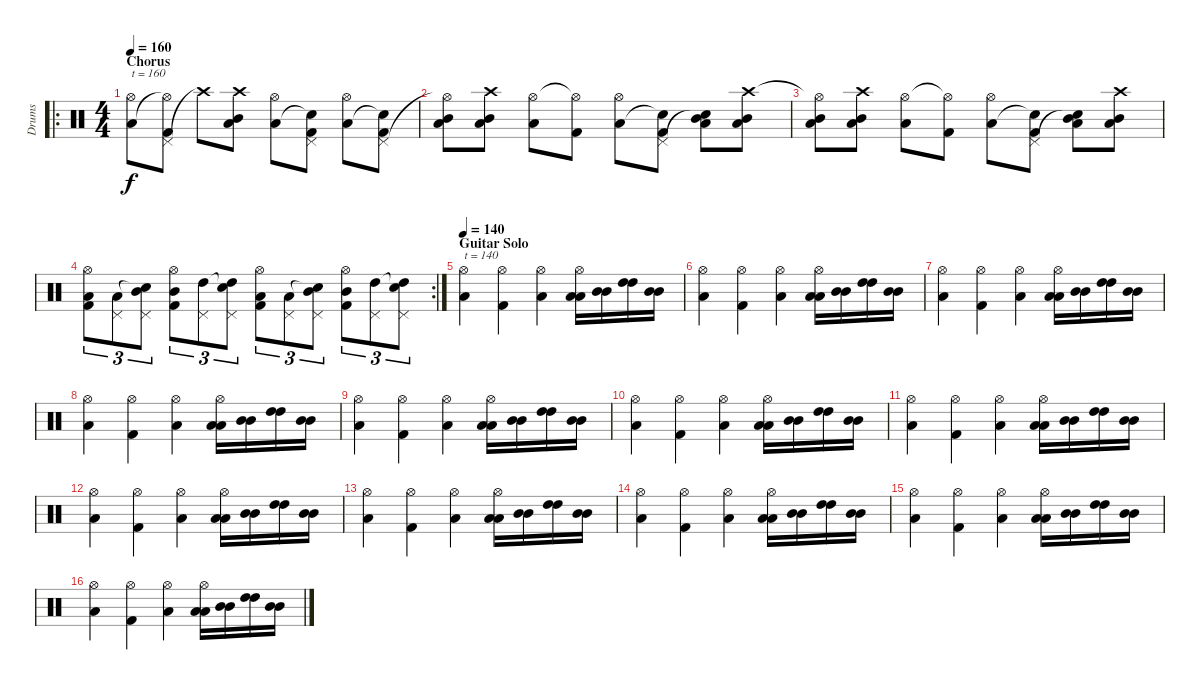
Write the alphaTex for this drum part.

\track ("Drums" "Drums") {instrument percussion}
\staff {score}
\articulation defaults
\ro
\ts (4 4)
\section ("" "Chorus")
\tempo 160
\clef neutral
\ks c
("Hi-Hat (open)" "Low Floor Tom (hit)").8{txt "t = 160" dy f} ("Pedal Hi-Hat (hit)" "Hi-Hat (open)"{t} "Kick (hit) 2").8 "Crash high (hit)"{t}.8 ("Crash high (hit)" "Mid Tom (hit)" "Low Tom (hit)").8 ("Hi-Hat (open)" "Low Floor Tom (hit)").8 ("Pedal Hi-Hat (hit)" "Snare (hit)"{t} "Kick (hit) 2").8 ("Hi-Hat (open)" "Low Floor Tom (hit)").8 ("Pedal Hi-Hat (hit)" "Snare (hit)"{t} "Kick (hit) 2").8 |
("Hi-Hat (open)"{t} "Mid Tom (hit)" "Low Tom (hit)").8 ("Crash high (hit)" "Mid Tom (hit)" "Low Tom (hit)").8 ("Hi-Hat (open)" "Low Floor Tom (hit)").8 ("Hi-Hat (open)"{t} "Kick (hit) 2").8 ("Hi-Hat (open)" "Low Floor Tom (hit)").8 ("Pedal Hi-Hat (hit)" "Snare (hit)"{t} "Kick (hit) 2").8 ("Snare (hit)"{t} "Mid Tom (hit)" "Low Tom (hit)").8 ("Crash high (hit)" "Mid Tom (hit)" "Low Tom (hit)").8 |
("Hi-Hat (open)"{t} "Mid Tom (hit)" "Low Tom (hit)").8 ("Crash high (hit)" "Mid Tom (hit)" "Low Tom (hit)").8 ("Hi-Hat (open)" "Low Floor Tom (hit)").8 ("Hi-Hat (open)"{t} "Kick (hit) 2").8 ("Hi-Hat (open)" "Low Floor Tom (hit)").8 ("Pedal Hi-Hat (hit)" "Snare (hit)"{t} "Kick (hit) 2").8 ("Snare (hit)"{t} "Mid Tom (hit)" "Low Tom (hit)").8 ("Crash high (hit)" "Mid Tom (hit)" "Low Tom (hit)").8 |
\rc 2
("Hi-Hat (open)" "Low Tom (hit)" "Kick (hit) 2").8{tu (3 2)} ("Pedal Hi-Hat (hit)" "Low Tom (hit)").8{tu (3 2)} ("Pedal Hi-Hat (hit)" "Snare (hit)"{t} "Mid Tom (hit)").8{tu (3 2)} ("Hi-Hat (open)" "Mid Tom (hit)" "Kick (hit) 2").8{tu (3 2)} ("Pedal Hi-Hat (hit)" "High Tom (hit)").8{tu (3 2)} ("Pedal Hi-Hat (hit)" "Snare (hit)"{t} "High Tom (hit)").8{tu (3 2)} ("Hi-Hat (open)" "Low Tom (hit)" "Kick (hit) 2").8{tu (3 2)} ("Pedal Hi-Hat (hit)" "Low Tom (hit)").8{tu (3 2)} ("Pedal Hi-Hat (hit)" "Snare (hit)"{t} "Mid Tom (hit)").8{tu (3 2)} ("Hi-Hat (open)" "Mid Tom (hit)" "Kick (hit) 2").8{tu (3 2)} ("Pedal Hi-Hat (hit)" "High Tom (hit)").8{tu (3 2)} ("Pedal Hi-Hat (hit)" "Snare (hit)"{t} "High Tom (hit)").8{tu (3 2)} |
\section ("" "Guitar Solo")
\tempo 140
("Hi-Hat (open)" "Low Floor Tom (hit)").4{txt "t = 140"} ("Hi-Hat (open)" "Kick (hit) 2").4 ("Hi-Hat (open)" "Low Floor Tom (hit)").4 ("Hi-Hat (open)" "Low Tom (hit)" "Low Tom (hit)").16 ("Mid Tom (hit)" "Mid Tom (hit)").16 ("High Tom (hit)" "High Tom (hit)").16 ("Mid Tom (hit)" "Mid Tom (hit)").16 |
("Hi-Hat (open)" "Low Floor Tom (hit)").4 ("Hi-Hat (open)" "Kick (hit) 2").4 ("Hi-Hat (open)" "Low Floor Tom (hit)").4 ("Hi-Hat (open)" "Low Tom (hit)" "Low Tom (hit)").16 ("Mid Tom (hit)" "Mid Tom (hit)").16 ("High Tom (hit)" "High Tom (hit)").16 ("Mid Tom (hit)" "Mid Tom (hit)").16 |
("Hi-Hat (open)" "Low Floor Tom (hit)").4 ("Hi-Hat (open)" "Kick (hit) 2").4 ("Hi-Hat (open)" "Low Floor Tom (hit)").4 ("Hi-Hat (open)" "Low Tom (hit)" "Low Tom (hit)").16 ("Mid Tom (hit)" "Mid Tom (hit)").16 ("High Tom (hit)" "High Tom (hit)").16 ("Mid Tom (hit)" "Mid Tom (hit)").16 |
("Hi-Hat (open)" "Low Floor Tom (hit)").4 ("Hi-Hat (open)" "Kick (hit) 2").4 ("Hi-Hat (open)" "Low Floor Tom (hit)").4 ("Hi-Hat (open)" "Low Tom (hit)" "Low Tom (hit)").16 ("Mid Tom (hit)" "Mid Tom (hit)").16 ("High Tom (hit)" "High Tom (hit)").16 ("Mid Tom (hit)" "Mid Tom (hit)").16 |
("Hi-Hat (open)" "Low Floor Tom (hit)").4 ("Hi-Hat (open)" "Kick (hit) 2").4 ("Hi-Hat (open)" "Low Floor Tom (hit)").4 ("Hi-Hat (open)" "Low Tom (hit)" "Low Tom (hit)").16 ("Mid Tom (hit)" "Mid Tom (hit)").16 ("High Tom (hit)" "High Tom (hit)").16 ("Mid Tom (hit)" "Mid Tom (hit)").16 |
("Hi-Hat (open)" "Low Floor Tom (hit)").4 ("Hi-Hat (open)" "Kick (hit) 2").4 ("Hi-Hat (open)" "Low Floor Tom (hit)").4 ("Hi-Hat (open)" "Low Tom (hit)" "Low Tom (hit)").16 ("Mid Tom (hit)" "Mid Tom (hit)").16 ("High Tom (hit)" "High Tom (hit)").16 ("Mid Tom (hit)" "Mid Tom (hit)").16 |
("Hi-Hat (open)" "Low Floor Tom (hit)").4 ("Hi-Hat (open)" "Kick (hit) 2").4 ("Hi-Hat (open)" "Low Floor Tom (hit)").4 ("Hi-Hat (open)" "Low Tom (hit)" "Low Tom (hit)").16 ("Mid Tom (hit)" "Mid Tom (hit)").16 ("High Tom (hit)" "High Tom (hit)").16 ("Mid Tom (hit)" "Mid Tom (hit)").16 |
("Hi-Hat (open)" "Low Floor Tom (hit)").4 ("Hi-Hat (open)" "Kick (hit) 2").4 ("Hi-Hat (open)" "Low Floor Tom (hit)").4 ("Hi-Hat (open)" "Low Tom (hit)" "Low Tom (hit)").16 ("Mid Tom (hit)" "Mid Tom (hit)").16 ("High Tom (hit)" "High Tom (hit)").16 ("Mid Tom (hit)" "Mid Tom (hit)").16 |
("Hi-Hat (open)" "Low Floor Tom (hit)").4 ("Hi-Hat (open)" "Kick (hit) 2").4 ("Hi-Hat (open)" "Low Floor Tom (hit)").4 ("Hi-Hat (open)" "Low Tom (hit)" "Low Tom (hit)").16 ("Mid Tom (hit)" "Mid Tom (hit)").16 ("High Tom (hit)" "High Tom (hit)").16 ("Mid Tom (hit)" "Mid Tom (hit)").16 |
("Hi-Hat (open)" "Low Floor Tom (hit)").4 ("Hi-Hat (open)" "Kick (hit) 2").4 ("Hi-Hat (open)" "Low Floor Tom (hit)").4 ("Hi-Hat (open)" "Low Tom (hit)" "Low Tom (hit)").16 ("Mid Tom (hit)" "Mid Tom (hit)").16 ("High Tom (hit)" "High Tom (hit)").16 ("Mid Tom (hit)" "Mid Tom (hit)").16 |
("Hi-Hat (open)" "Low Floor Tom (hit)").4 ("Hi-Hat (open)" "Kick (hit) 2").4 ("Hi-Hat (open)" "Low Floor Tom (hit)").4 ("Hi-Hat (open)" "Low Tom (hit)" "Low Tom (hit)").16 ("Mid Tom (hit)" "Mid Tom (hit)").16 ("High Tom (hit)" "High Tom (hit)").16 ("Mid Tom (hit)" "Mid Tom (hit)").16 |
("Hi-Hat (open)" "Low Floor Tom (hit)").4 ("Hi-Hat (open)" "Kick (hit) 2").4 ("Hi-Hat (open)" "Low Floor Tom (hit)").4 ("Hi-Hat (open)" "Low Tom (hit)" "Low Tom (hit)").16 ("Mid Tom (hit)" "Mid Tom (hit)").16 ("High Tom (hit)" "High Tom (hit)").16 ("Mid Tom (hit)" "Mid Tom (hit)").16
